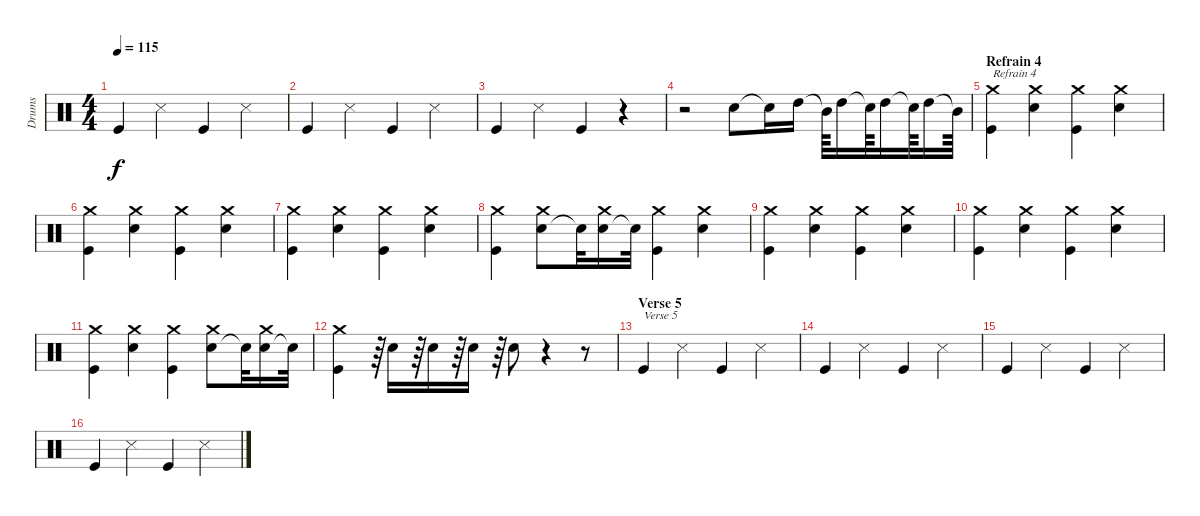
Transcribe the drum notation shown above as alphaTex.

\track ("Drums" "Drums") {instrument percussion}
\staff {score}
\articulation defaults
\ts (4 4)
\tempo 115
\clef neutral
\ks c "Kick (hit)".4{dy f} "Snare (side stick) 3".4 "Kick (hit)".4 "Snare (side stick) 3".4
|
"Kick (hit)".4 "Snare (side stick) 3".4 "Kick (hit)".4 "Snare (side stick) 3".4 |
"Kick (hit)".4 "Snare (side stick) 3".4 "Kick (hit)".4 r.4 |
r.2 "Snare (hit) 2".8 "Snare (hit)"{t}.16 "High Tom (hit)".16 "Mid Tom (hit)"{t}.64 "High Tom (hit)".16 "Snare (hit)"{t}.64 "High Tom (hit)".16 "Snare (hit)"{t}.64 "High Tom (hit)".16 "Mid Tom (hit)"{t}.64 |
\section ("" "Refrain 4")
("Kick (hit)" "Crash medium (hit)").4{txt "Refrain 4"} ("Snare (hit) 2" "Crash medium (hit)").4 ("Kick (hit)" "Crash medium (hit)").4 ("Snare (hit) 2" "Crash medium (hit)").4 |
("Kick (hit)" "Crash medium (hit)").4 ("Snare (hit) 2" "Crash medium (hit)").4 ("Kick (hit)" "Crash medium (hit)").4 ("Snare (hit) 2" "Crash medium (hit)").4 |
("Kick (hit)" "Crash medium (hit)").4 ("Snare (hit) 2" "Crash medium (hit)").4 ("Kick (hit)" "Crash medium (hit)").4 ("Snare (hit) 2" "Crash medium (hit)").4 |
("Kick (hit)" "Crash medium (hit)").4 ("Snare (hit) 2" "Crash medium (hit)").8 "Snare (hit)"{t}.32 ("Snare (hit) 2" "Crash medium (hit)").16 "Snare (hit)"{t}.32 ("Kick (hit)" "Crash medium (hit)").4 ("Snare (hit) 2" "Crash medium (hit)").4 |
("Kick (hit)" "Crash medium (hit)").4 ("Snare (hit) 2" "Crash medium (hit)").4 ("Kick (hit)" "Crash medium (hit)").4 ("Snare (hit) 2" "Crash medium (hit)").4 |
("Kick (hit)" "Crash medium (hit)").4 ("Snare (hit) 2" "Crash medium (hit)").4 ("Kick (hit)" "Crash medium (hit)").4 ("Snare (hit) 2" "Crash medium (hit)").4 |
("Kick (hit)" "Crash medium (hit)").4 ("Snare (hit) 2" "Crash medium (hit)").4 ("Kick (hit)" "Crash medium (hit)").4 ("Snare (hit) 2" "Crash medium (hit)").8 "Snare (hit)"{t}.32 ("Snare (hit) 2" "Crash medium (hit)").16 "Snare (hit) 2"{t}.32 |
("Kick (hit)" "Crash medium (hit)").4 r.64 "Snare (hit) 2".16 r.64 "Snare (hit) 2".16 r.64 "Snare (hit) 2".16 r.64 "Snare (hit) 2".8 r.4 r.8 |
\section ("" "Verse 5")
"Kick (hit)".4{txt "Verse 5"} "Snare (side stick) 3".4 "Kick (hit)".4 "Snare (side stick) 3".4 |
"Kick (hit)".4 "Snare (side stick) 3".4 "Kick (hit)".4 "Snare (side stick) 3".4 |
"Kick (hit)".4 "Snare (side stick) 3".4 "Kick (hit)".4 "Snare (side stick) 3".4 |
"Kick (hit)".4 "Snare (side stick) 3".4 "Kick (hit)".4 "Snare (side stick) 3".4
